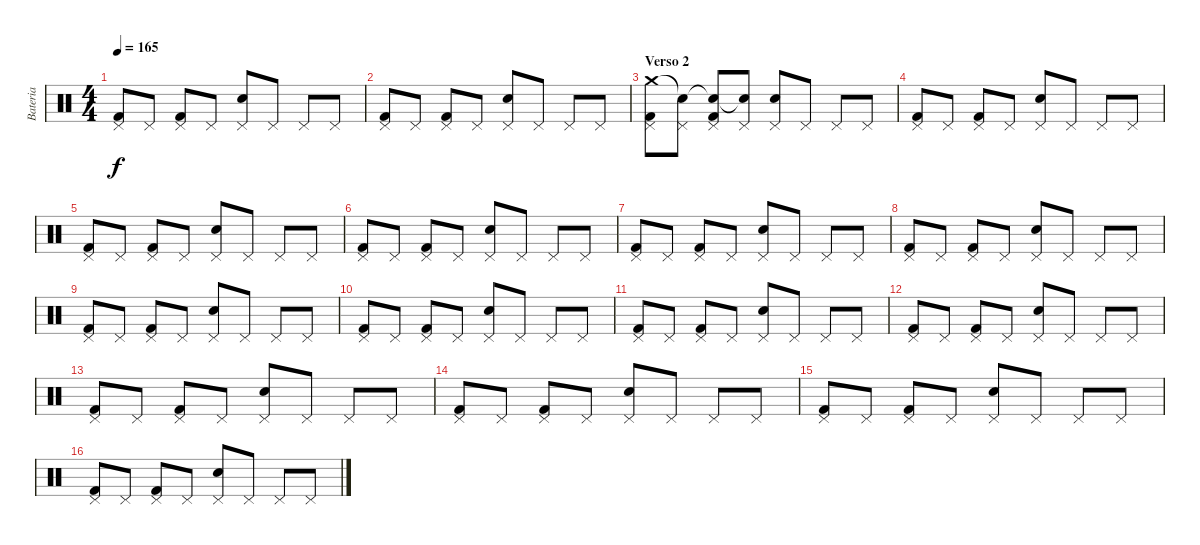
\track ("Bateria" "Bateria") {instrument percussion}
\staff {score}
\articulation defaults
\ts (4 4)
\tempo 165
\clef neutral
\ks c
("Pedal Hi-Hat (hit)" "Kick (hit) 2").8{dy f} "Pedal Hi-Hat (hit)".8 ("Pedal Hi-Hat (hit)" "Kick (hit) 2").8 "Pedal Hi-Hat (hit)".8 ("Pedal Hi-Hat (hit)" "Electric Snare (hit)").8 "Pedal Hi-Hat (hit)".8 "Pedal Hi-Hat (hit)".8 "Pedal Hi-Hat (hit)".8 |
("Pedal Hi-Hat (hit)" "Kick (hit) 2").8 "Pedal Hi-Hat (hit)".8 ("Pedal Hi-Hat (hit)" "Kick (hit) 2").8 "Pedal Hi-Hat (hit)".8 ("Pedal Hi-Hat (hit)" "Electric Snare (hit)").8 "Pedal Hi-Hat (hit)".8 "Pedal Hi-Hat (hit)".8 "Pedal Hi-Hat (hit)".8 |
\section ("" "Verso 2")
("Crash medium (hit)" "Pedal Hi-Hat (hit)" "Kick (hit) 2").8 ("Snare (hit)"{t} "Pedal Hi-Hat (hit)").8 ("Snare (hit)"{t} "Pedal Hi-Hat (hit)" "Kick (hit) 2").8 ("Snare (hit)"{t} "Pedal Hi-Hat (hit)").8 ("Pedal Hi-Hat (hit)" "Electric Snare (hit)").8 "Pedal Hi-Hat (hit)".8 "Pedal Hi-Hat (hit)".8 "Pedal Hi-Hat (hit)".8 |
("Pedal Hi-Hat (hit)" "Kick (hit) 2").8 "Pedal Hi-Hat (hit)".8 ("Pedal Hi-Hat (hit)" "Kick (hit) 2").8 "Pedal Hi-Hat (hit)".8 ("Pedal Hi-Hat (hit)" "Electric Snare (hit)").8 "Pedal Hi-Hat (hit)".8 "Pedal Hi-Hat (hit)".8 "Pedal Hi-Hat (hit)".8 |
("Pedal Hi-Hat (hit)" "Kick (hit) 2").8 "Pedal Hi-Hat (hit)".8 ("Pedal Hi-Hat (hit)" "Kick (hit) 2").8 "Pedal Hi-Hat (hit)".8 ("Pedal Hi-Hat (hit)" "Electric Snare (hit)").8 "Pedal Hi-Hat (hit)".8 "Pedal Hi-Hat (hit)".8 "Pedal Hi-Hat (hit)".8 |
("Pedal Hi-Hat (hit)" "Kick (hit) 2").8 "Pedal Hi-Hat (hit)".8 ("Pedal Hi-Hat (hit)" "Kick (hit) 2").8 "Pedal Hi-Hat (hit)".8 ("Pedal Hi-Hat (hit)" "Electric Snare (hit)").8 "Pedal Hi-Hat (hit)".8 "Pedal Hi-Hat (hit)".8 "Pedal Hi-Hat (hit)".8 |
("Pedal Hi-Hat (hit)" "Kick (hit) 2").8 "Pedal Hi-Hat (hit)".8 ("Pedal Hi-Hat (hit)" "Kick (hit) 2").8 "Pedal Hi-Hat (hit)".8 ("Pedal Hi-Hat (hit)" "Electric Snare (hit)").8 "Pedal Hi-Hat (hit)".8 "Pedal Hi-Hat (hit)".8 "Pedal Hi-Hat (hit)".8 |
("Pedal Hi-Hat (hit)" "Kick (hit) 2").8 "Pedal Hi-Hat (hit)".8 ("Pedal Hi-Hat (hit)" "Kick (hit) 2").8 "Pedal Hi-Hat (hit)".8 ("Pedal Hi-Hat (hit)" "Electric Snare (hit)").8 "Pedal Hi-Hat (hit)".8 "Pedal Hi-Hat (hit)".8 "Pedal Hi-Hat (hit)".8 |
("Pedal Hi-Hat (hit)" "Kick (hit) 2").8 "Pedal Hi-Hat (hit)".8 ("Pedal Hi-Hat (hit)" "Kick (hit) 2").8 "Pedal Hi-Hat (hit)".8 ("Pedal Hi-Hat (hit)" "Electric Snare (hit)").8 "Pedal Hi-Hat (hit)".8 "Pedal Hi-Hat (hit)".8 "Pedal Hi-Hat (hit)".8 |
("Pedal Hi-Hat (hit)" "Kick (hit) 2").8 "Pedal Hi-Hat (hit)".8 ("Pedal Hi-Hat (hit)" "Kick (hit) 2").8 "Pedal Hi-Hat (hit)".8 ("Pedal Hi-Hat (hit)" "Electric Snare (hit)").8 "Pedal Hi-Hat (hit)".8 "Pedal Hi-Hat (hit)".8 "Pedal Hi-Hat (hit)".8 |
("Pedal Hi-Hat (hit)" "Kick (hit) 2").8 "Pedal Hi-Hat (hit)".8 ("Pedal Hi-Hat (hit)" "Kick (hit) 2").8 "Pedal Hi-Hat (hit)".8 ("Pedal Hi-Hat (hit)" "Electric Snare (hit)").8 "Pedal Hi-Hat (hit)".8 "Pedal Hi-Hat (hit)".8 "Pedal Hi-Hat (hit)".8 |
("Pedal Hi-Hat (hit)" "Kick (hit) 2").8 "Pedal Hi-Hat (hit)".8 ("Pedal Hi-Hat (hit)" "Kick (hit) 2").8 "Pedal Hi-Hat (hit)".8 ("Pedal Hi-Hat (hit)" "Electric Snare (hit)").8 "Pedal Hi-Hat (hit)".8 "Pedal Hi-Hat (hit)".8 "Pedal Hi-Hat (hit)".8 |
("Pedal Hi-Hat (hit)" "Kick (hit) 2").8 "Pedal Hi-Hat (hit)".8 ("Pedal Hi-Hat (hit)" "Kick (hit) 2").8 "Pedal Hi-Hat (hit)".8 ("Pedal Hi-Hat (hit)" "Electric Snare (hit)").8 "Pedal Hi-Hat (hit)".8 "Pedal Hi-Hat (hit)".8 "Pedal Hi-Hat (hit)".8 |
("Pedal Hi-Hat (hit)" "Kick (hit) 2").8 "Pedal Hi-Hat (hit)".8 ("Pedal Hi-Hat (hit)" "Kick (hit) 2").8 "Pedal Hi-Hat (hit)".8 ("Pedal Hi-Hat (hit)" "Electric Snare (hit)").8 "Pedal Hi-Hat (hit)".8 "Pedal Hi-Hat (hit)".8 "Pedal Hi-Hat (hit)".8 |
("Pedal Hi-Hat (hit)" "Kick (hit) 2").8 "Pedal Hi-Hat (hit)".8 ("Pedal Hi-Hat (hit)" "Kick (hit) 2").8 "Pedal Hi-Hat (hit)".8 ("Pedal Hi-Hat (hit)" "Electric Snare (hit)").8 "Pedal Hi-Hat (hit)".8 "Pedal Hi-Hat (hit)".8 "Pedal Hi-Hat (hit)".8 |
("Pedal Hi-Hat (hit)" "Kick (hit) 2").8 "Pedal Hi-Hat (hit)".8 ("Pedal Hi-Hat (hit)" "Kick (hit) 2").8 "Pedal Hi-Hat (hit)".8 ("Pedal Hi-Hat (hit)" "Electric Snare (hit)").8 "Pedal Hi-Hat (hit)".8 "Pedal Hi-Hat (hit)".8 "Pedal Hi-Hat (hit)".8
